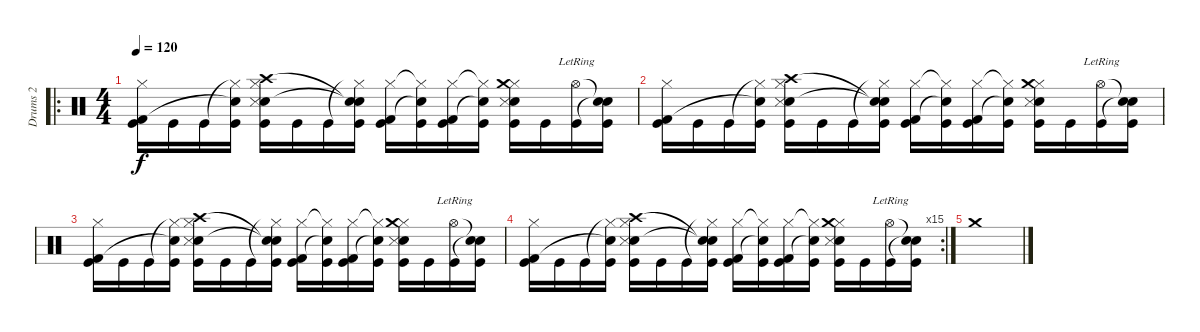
\track ("Drums 2" "Drums 2") {instrument percussion}
\staff {score}
\articulation defaults
\ro
\ts (4 4)
\tempo 120
\clef neutral
\ks c
("Hi-Hat (closed)" "Kick (hit) 2" "Kick (hit)").16{dy f} "Kick (hit)".16 "Kick (hit)".16 ("Hi-Hat (closed)"{t} "Snare (hit)"{t} "Kick (hit)").16 ("Hi-Hat (closed)" "Snare (hit) 2" "Crash high (hit)" "Snare (side stick) 3" "Kick (hit)").16 "Kick (hit)".16 "Kick (hit)".16 ("Hi-Hat (closed)"{t} "Snare (hit)"{t} "Snare (hit)"{t} "Kick (hit)").16 ("Hi-Hat (closed)" "Kick (hit) 2" "Kick (hit)").16 ("Hi-Hat (closed)"{t} "Snare (hit)"{t} "Kick (hit)").16 ("Hi-Hat (closed)" "Kick (hit) 2" "Kick (hit)").16 ("Hi-Hat (closed)"{t} "Snare (hit)"{t} "Kick (hit)").16 ("Hi-Hat (closed)" "Snare (hit) 2" "Crash medium (hit)" "Snare (side stick) 3" "Kick (hit)").16 "Kick (hit)".16 ("Hi-Hat (open)"{lr} "Kick (hit)").16 ("Snare (hit)"{t} "Snare (hit)"{t} "Kick (hit)").16 |
("Hi-Hat (closed)" "Kick (hit) 2" "Kick (hit)").16 "Kick (hit)".16 "Kick (hit)".16 ("Hi-Hat (closed)"{t} "Snare (hit)"{t} "Kick (hit)").16 ("Hi-Hat (closed)" "Snare (hit) 2" "Crash high (hit)" "Snare (side stick) 3" "Kick (hit)").16 "Kick (hit)".16 "Kick (hit)".16 ("Hi-Hat (closed)"{t} "Snare (hit)"{t} "Snare (hit)"{t} "Kick (hit)").16 ("Hi-Hat (closed)" "Kick (hit) 2" "Kick (hit)").16 ("Hi-Hat (closed)"{t} "Snare (hit)"{t} "Kick (hit)").16 ("Hi-Hat (closed)" "Kick (hit) 2" "Kick (hit)").16 ("Hi-Hat (closed)"{t} "Snare (hit)"{t} "Kick (hit)").16 ("Hi-Hat (closed)" "Snare (hit) 2" "Crash medium (hit)" "Snare (side stick) 3" "Kick (hit)").16 "Kick (hit)".16 ("Hi-Hat (open)"{lr} "Kick (hit)").16 ("Snare (hit)"{t} "Snare (hit)"{t} "Kick (hit)").16 |
("Hi-Hat (closed)" "Kick (hit) 2" "Kick (hit)").16 "Kick (hit)".16 "Kick (hit)".16 ("Hi-Hat (closed)"{t} "Snare (hit)"{t} "Kick (hit)").16 ("Hi-Hat (closed)" "Snare (hit) 2" "Crash high (hit)" "Snare (side stick) 3" "Kick (hit)").16 "Kick (hit)".16 "Kick (hit)".16 ("Hi-Hat (closed)"{t} "Snare (hit)"{t} "Snare (hit)"{t} "Kick (hit)").16 ("Hi-Hat (closed)" "Kick (hit) 2" "Kick (hit)").16 ("Hi-Hat (closed)"{t} "Snare (hit)"{t} "Kick (hit)").16 ("Hi-Hat (closed)" "Kick (hit) 2" "Kick (hit)").16 ("Hi-Hat (closed)"{t} "Snare (hit)"{t} "Kick (hit)").16 ("Hi-Hat (closed)" "Snare (hit) 2" "Crash medium (hit)" "Snare (side stick) 3" "Kick (hit)").16 "Kick (hit)".16 ("Hi-Hat (open)"{lr} "Kick (hit)").16 ("Snare (hit)"{t} "Snare (hit)"{t} "Kick (hit)").16 |
\rc 15
("Hi-Hat (closed)" "Kick (hit) 2" "Kick (hit)").16 "Kick (hit)".16 "Kick (hit)".16 ("Hi-Hat (closed)"{t} "Snare (hit)"{t} "Kick (hit)").16 ("Hi-Hat (closed)" "Snare (hit) 2" "Crash high (hit)" "Snare (side stick) 3" "Kick (hit)").16 "Kick (hit)".16 "Kick (hit)".16 ("Hi-Hat (closed)"{t} "Snare (hit)"{t} "Snare (hit)"{t} "Kick (hit)").16 ("Hi-Hat (closed)" "Kick (hit) 2" "Kick (hit)").16 ("Hi-Hat (closed)"{t} "Snare (hit)"{t} "Kick (hit)").16 ("Hi-Hat (closed)" "Kick (hit) 2" "Kick (hit)").16 ("Hi-Hat (closed)"{t} "Snare (hit)"{t} "Kick (hit)").16 ("Hi-Hat (closed)" "Snare (hit) 2" "Crash medium (hit)" "Snare (side stick) 3" "Kick (hit)").16 "Kick (hit)".16 ("Hi-Hat (open)"{lr} "Kick (hit)").16 ("Snare (hit)"{t} "Snare (hit)"{t} "Kick (hit)").16 |
"Crash medium (hit)".1
